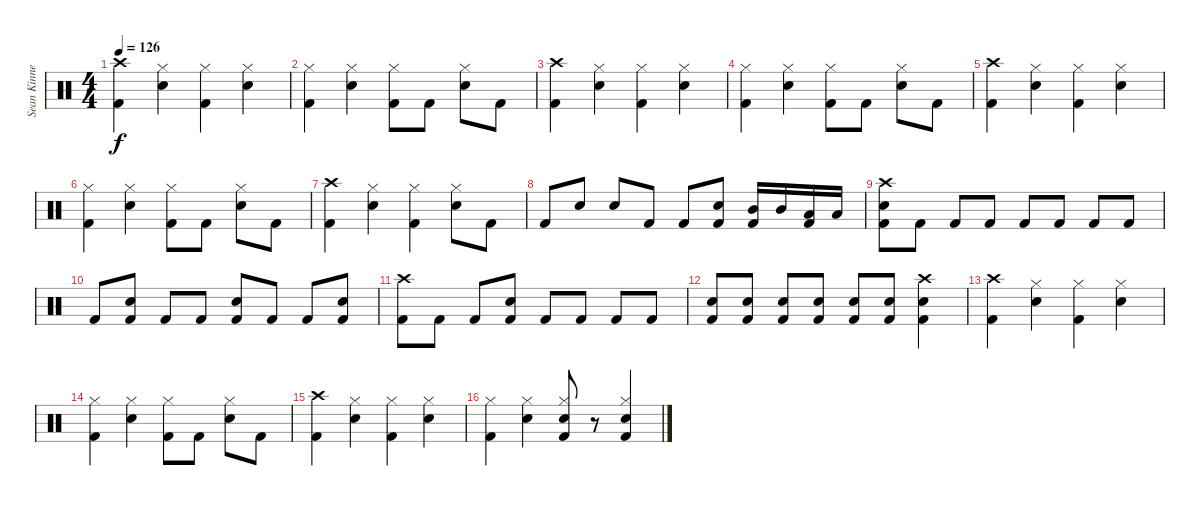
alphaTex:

\track ("Sean Kinney - Drums" "Sean Kinne") {instrument percussion}
\staff {score}
\articulation defaults
\ts (4 4)
\tempo 126
\clef neutral
\ks c
("Crash high (hit)" "Kick (hit) 2").4{dy f} ("Hi-Hat (closed)" "Electric Snare (hit)").4 ("Hi-Hat (closed)" "Kick (hit) 2").4 ("Hi-Hat (closed)" "Electric Snare (hit)").4 |
("Hi-Hat (closed)" "Kick (hit) 2").4 ("Hi-Hat (closed)" "Electric Snare (hit)").4 ("Hi-Hat (closed)" "Kick (hit) 2").8 "Kick (hit) 2".8 ("Hi-Hat (closed)" "Electric Snare (hit)").8 "Kick (hit) 2".8 |
("Crash high (hit)" "Kick (hit) 2").4 ("Hi-Hat (closed)" "Electric Snare (hit)").4 ("Hi-Hat (closed)" "Kick (hit) 2").4 ("Hi-Hat (closed)" "Electric Snare (hit)").4 |
("Hi-Hat (closed)" "Kick (hit) 2").4 ("Hi-Hat (closed)" "Electric Snare (hit)").4 ("Hi-Hat (closed)" "Kick (hit) 2").8 "Kick (hit) 2".8 ("Hi-Hat (closed)" "Electric Snare (hit)").8 "Kick (hit) 2".8 |
("Crash high (hit)" "Kick (hit) 2").4 ("Hi-Hat (closed)" "Electric Snare (hit)").4 ("Hi-Hat (closed)" "Kick (hit) 2").4 ("Hi-Hat (closed)" "Electric Snare (hit)").4 |
("Hi-Hat (closed)" "Kick (hit) 2").4 ("Hi-Hat (closed)" "Electric Snare (hit)").4 ("Hi-Hat (closed)" "Kick (hit) 2").8 "Kick (hit) 2".8 ("Hi-Hat (closed)" "Electric Snare (hit)").8 "Kick (hit) 2".8 |
("Crash high (hit)" "Kick (hit) 2").4 ("Hi-Hat (closed)" "Electric Snare (hit)").4 ("Hi-Hat (closed)" "Kick (hit) 2").4 ("Hi-Hat (closed)" "Electric Snare (hit)").8 "Kick (hit) 2".8 |
"Kick (hit) 2".8 "Electric Snare (hit)".8 "Electric Snare (hit)".8 "Kick (hit) 2".8 "Kick (hit) 2".8 ("Electric Snare (hit)" "Kick (hit) 2").8 ("Mid Tom (hit)" "Kick (hit) 2").16 "Mid Tom (hit)".16 ("Low Tom (hit)" "Kick (hit) 2").16 "Low Tom (hit)".16 |
("Crash high (hit)" "Electric Snare (hit)" "Kick (hit) 2").8 "Kick (hit) 2".8 "Kick (hit) 2".8 "Kick (hit) 2".8 "Kick (hit) 2".8 "Kick (hit) 2".8 "Kick (hit) 2".8 "Kick (hit) 2".8 |
"Kick (hit) 2".8 ("Electric Snare (hit)" "Kick (hit) 2").8 "Kick (hit) 2".8 "Kick (hit) 2".8 ("Electric Snare (hit)" "Kick (hit) 2").8 "Kick (hit) 2".8 "Kick (hit) 2".8 ("Electric Snare (hit)" "Kick (hit) 2").8 |
("Crash high (hit)" "Kick (hit) 2").8 "Kick (hit) 2".8 "Kick (hit) 2".8 ("Electric Snare (hit)" "Kick (hit) 2").8 "Kick (hit) 2".8 "Kick (hit) 2".8 "Kick (hit) 2".8 "Kick (hit) 2".8 |
("Electric Snare (hit)" "Kick (hit) 2").8 ("Electric Snare (hit)" "Kick (hit) 2").8 ("Electric Snare (hit)" "Kick (hit) 2").8 ("Electric Snare (hit)" "Kick (hit) 2").8 ("Electric Snare (hit)" "Kick (hit) 2").8 ("Electric Snare (hit)" "Kick (hit) 2").8 ("Crash high (hit)" "Electric Snare (hit)" "Kick (hit) 2").4 |
("Crash high (hit)" "Kick (hit) 2").4 ("Hi-Hat (closed)" "Electric Snare (hit)").4 ("Hi-Hat (closed)" "Kick (hit) 2").4 ("Hi-Hat (closed)" "Electric Snare (hit)").4 |
("Hi-Hat (closed)" "Kick (hit) 2").4 ("Hi-Hat (closed)" "Electric Snare (hit)").4 ("Hi-Hat (closed)" "Kick (hit) 2").8 "Kick (hit) 2".8 ("Hi-Hat (closed)" "Electric Snare (hit)").8 "Kick (hit) 2".8 |
("Crash high (hit)" "Kick (hit) 2").4 ("Hi-Hat (closed)" "Electric Snare (hit)").4 ("Hi-Hat (closed)" "Kick (hit) 2").4 ("Hi-Hat (closed)" "Electric Snare (hit)").4 |
("Hi-Hat (closed)" "Kick (hit) 2").4 ("Hi-Hat (closed)" "Electric Snare (hit)").4 ("Hi-Hat (closed)" "Electric Snare (hit)" "Kick (hit) 2").8 r.8 ("Hi-Hat (closed)" "Electric Snare (hit)" "Kick (hit) 2").4
